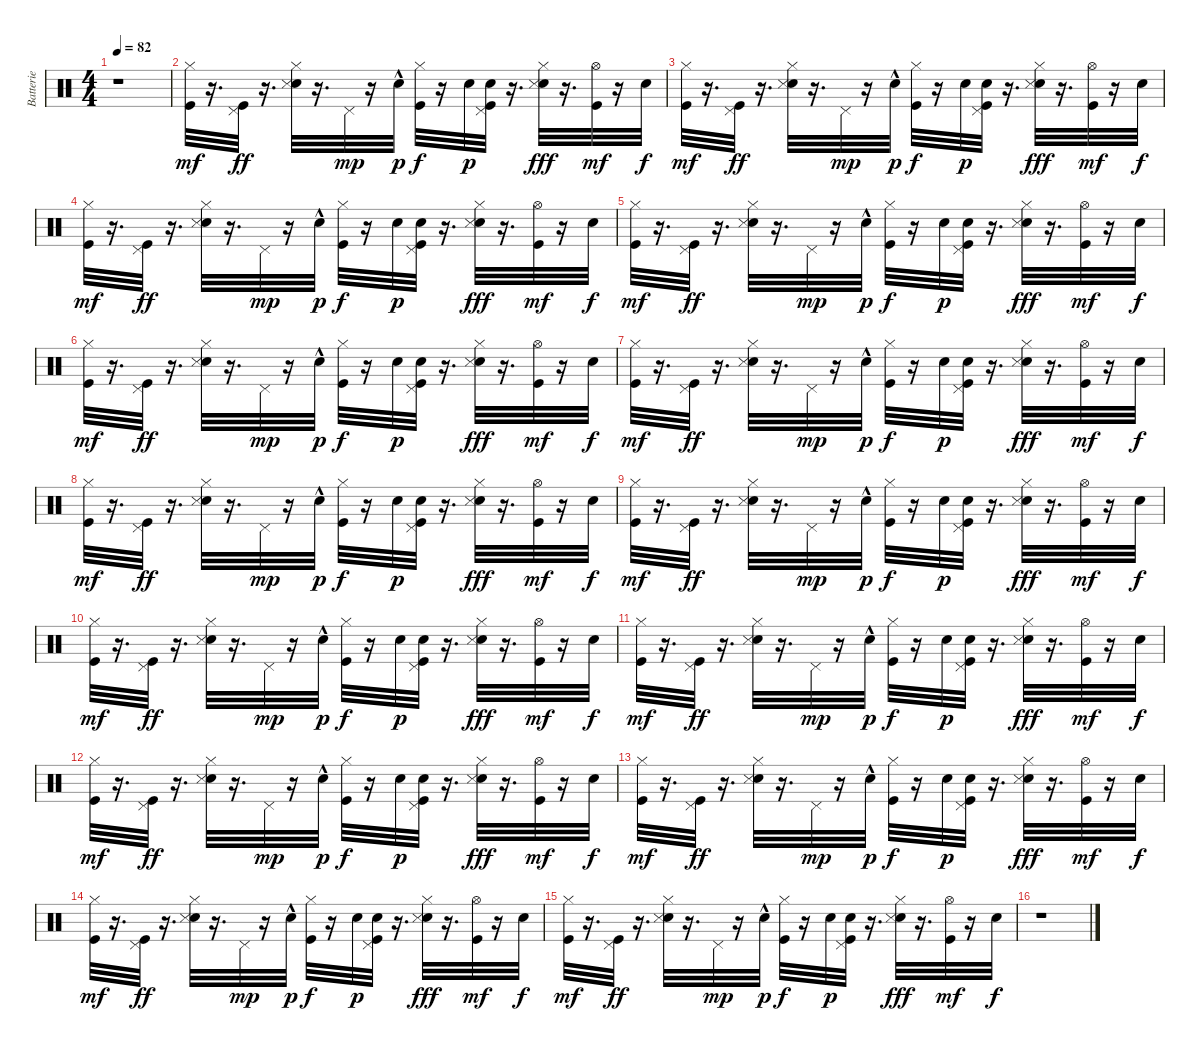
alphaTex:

\track ("Batterie" "Batterie") {instrument percussion}
\staff {score}
\articulation defaults
\ts (4 4)
\tempo 82
\clef neutral
\ks c
r.1{dy f} |
("Hi-Hat (closed)" "Kick (hit)").32{dy mf} r.16{d} ("Pedal Hi-Hat (hit)" "Kick (hit)").32{dy ff} r.16{d} ("Electric Snare (hit)" "Hi-Hat (closed)" "Snare (side stick) 3").32 r.16{d} "Pedal Hi-Hat (hit)".32{dy mp} r.16 "Electric Snare (hit)"{hac}.32{dy p} ("Hi-Hat (closed)" "Kick (hit)").32{dy f} r.16 "Electric Snare (hit)".32{dy p} ("Electric Snare (hit)" "Pedal Hi-Hat (hit)" "Kick (hit)").32 r.16{d} ("Electric Snare (hit)" "Hi-Hat (closed)" "Snare (side stick) 3").32{dy fff} r.16{d} ("Hi-Hat (open)" "Kick (hit)").32{dy mf} r.16 "Electric Snare (hit)".32{dy f} |
("Hi-Hat (closed)" "Kick (hit)").32{dy mf} r.16{d} ("Pedal Hi-Hat (hit)" "Kick (hit)").32{dy ff} r.16{d} ("Electric Snare (hit)" "Hi-Hat (closed)" "Snare (side stick) 3").32 r.16{d} "Pedal Hi-Hat (hit)".32{dy mp} r.16 "Electric Snare (hit)"{hac}.32{dy p} ("Hi-Hat (closed)" "Kick (hit)").32{dy f} r.16 "Electric Snare (hit)".32{dy p} ("Electric Snare (hit)" "Pedal Hi-Hat (hit)" "Kick (hit)").32 r.16{d} ("Electric Snare (hit)" "Hi-Hat (closed)" "Snare (side stick) 3").32{dy fff} r.16{d} ("Hi-Hat (open)" "Kick (hit)").32{dy mf} r.16 "Electric Snare (hit)".32{dy f} |
("Hi-Hat (closed)" "Kick (hit)").32{dy mf} r.16{d} ("Pedal Hi-Hat (hit)" "Kick (hit)").32{dy ff} r.16{d} ("Electric Snare (hit)" "Hi-Hat (closed)" "Snare (side stick) 3").32 r.16{d} "Pedal Hi-Hat (hit)".32{dy mp} r.16 "Electric Snare (hit)"{hac}.32{dy p} ("Hi-Hat (closed)" "Kick (hit)").32{dy f} r.16 "Electric Snare (hit)".32{dy p} ("Electric Snare (hit)" "Pedal Hi-Hat (hit)" "Kick (hit)").32 r.16{d} ("Electric Snare (hit)" "Hi-Hat (closed)" "Snare (side stick) 3").32{dy fff} r.16{d} ("Hi-Hat (open)" "Kick (hit)").32{dy mf} r.16 "Electric Snare (hit)".32{dy f} |
("Hi-Hat (closed)" "Kick (hit)").32{dy mf} r.16{d} ("Pedal Hi-Hat (hit)" "Kick (hit)").32{dy ff} r.16{d} ("Electric Snare (hit)" "Hi-Hat (closed)" "Snare (side stick) 3").32 r.16{d} "Pedal Hi-Hat (hit)".32{dy mp} r.16 "Electric Snare (hit)"{hac}.32{dy p} ("Hi-Hat (closed)" "Kick (hit)").32{dy f} r.16 "Electric Snare (hit)".32{dy p} ("Electric Snare (hit)" "Pedal Hi-Hat (hit)" "Kick (hit)").32 r.16{d} ("Electric Snare (hit)" "Hi-Hat (closed)" "Snare (side stick) 3").32{dy fff} r.16{d} ("Hi-Hat (open)" "Kick (hit)").32{dy mf} r.16 "Electric Snare (hit)".32{dy f} |
("Hi-Hat (closed)" "Kick (hit)").32{dy mf} r.16{d} ("Pedal Hi-Hat (hit)" "Kick (hit)").32{dy ff} r.16{d} ("Electric Snare (hit)" "Hi-Hat (closed)" "Snare (side stick) 3").32 r.16{d} "Pedal Hi-Hat (hit)".32{dy mp} r.16 "Electric Snare (hit)"{hac}.32{dy p} ("Hi-Hat (closed)" "Kick (hit)").32{dy f} r.16 "Electric Snare (hit)".32{dy p} ("Electric Snare (hit)" "Pedal Hi-Hat (hit)" "Kick (hit)").32 r.16{d} ("Electric Snare (hit)" "Hi-Hat (closed)" "Snare (side stick) 3").32{dy fff} r.16{d} ("Hi-Hat (open)" "Kick (hit)").32{dy mf} r.16 "Electric Snare (hit)".32{dy f} |
("Hi-Hat (closed)" "Kick (hit)").32{dy mf} r.16{d} ("Pedal Hi-Hat (hit)" "Kick (hit)").32{dy ff} r.16{d} ("Electric Snare (hit)" "Hi-Hat (closed)" "Snare (side stick) 3").32 r.16{d} "Pedal Hi-Hat (hit)".32{dy mp} r.16 "Electric Snare (hit)"{hac}.32{dy p} ("Hi-Hat (closed)" "Kick (hit)").32{dy f} r.16 "Electric Snare (hit)".32{dy p} ("Electric Snare (hit)" "Pedal Hi-Hat (hit)" "Kick (hit)").32 r.16{d} ("Electric Snare (hit)" "Hi-Hat (closed)" "Snare (side stick) 3").32{dy fff} r.16{d} ("Hi-Hat (open)" "Kick (hit)").32{dy mf} r.16 "Electric Snare (hit)".32{dy f} |
("Hi-Hat (closed)" "Kick (hit)").32{dy mf} r.16{d} ("Pedal Hi-Hat (hit)" "Kick (hit)").32{dy ff} r.16{d} ("Electric Snare (hit)" "Hi-Hat (closed)" "Snare (side stick) 3").32 r.16{d} "Pedal Hi-Hat (hit)".32{dy mp} r.16 "Electric Snare (hit)"{hac}.32{dy p} ("Hi-Hat (closed)" "Kick (hit)").32{dy f} r.16 "Electric Snare (hit)".32{dy p} ("Electric Snare (hit)" "Pedal Hi-Hat (hit)" "Kick (hit)").32 r.16{d} ("Electric Snare (hit)" "Hi-Hat (closed)" "Snare (side stick) 3").32{dy fff} r.16{d} ("Hi-Hat (open)" "Kick (hit)").32{dy mf} r.16 "Electric Snare (hit)".32{dy f} |
("Hi-Hat (closed)" "Kick (hit)").32{dy mf} r.16{d} ("Pedal Hi-Hat (hit)" "Kick (hit)").32{dy ff} r.16{d} ("Electric Snare (hit)" "Hi-Hat (closed)" "Snare (side stick) 3").32 r.16{d} "Pedal Hi-Hat (hit)".32{dy mp} r.16 "Electric Snare (hit)"{hac}.32{dy p} ("Hi-Hat (closed)" "Kick (hit)").32{dy f} r.16 "Electric Snare (hit)".32{dy p} ("Electric Snare (hit)" "Pedal Hi-Hat (hit)" "Kick (hit)").32 r.16{d} ("Electric Snare (hit)" "Hi-Hat (closed)" "Snare (side stick) 3").32{dy fff} r.16{d} ("Hi-Hat (open)" "Kick (hit)").32{dy mf} r.16 "Electric Snare (hit)".32{dy f} |
("Hi-Hat (closed)" "Kick (hit)").32{dy mf} r.16{d} ("Pedal Hi-Hat (hit)" "Kick (hit)").32{dy ff} r.16{d} ("Electric Snare (hit)" "Hi-Hat (closed)" "Snare (side stick) 3").32 r.16{d} "Pedal Hi-Hat (hit)".32{dy mp} r.16 "Electric Snare (hit)"{hac}.32{dy p} ("Hi-Hat (closed)" "Kick (hit)").32{dy f} r.16 "Electric Snare (hit)".32{dy p} ("Electric Snare (hit)" "Pedal Hi-Hat (hit)" "Kick (hit)").32 r.16{d} ("Electric Snare (hit)" "Hi-Hat (closed)" "Snare (side stick) 3").32{dy fff} r.16{d} ("Hi-Hat (open)" "Kick (hit)").32{dy mf} r.16 "Electric Snare (hit)".32{dy f} |
("Hi-Hat (closed)" "Kick (hit)").32{dy mf} r.16{d} ("Pedal Hi-Hat (hit)" "Kick (hit)").32{dy ff} r.16{d} ("Electric Snare (hit)" "Hi-Hat (closed)" "Snare (side stick) 3").32 r.16{d} "Pedal Hi-Hat (hit)".32{dy mp} r.16 "Electric Snare (hit)"{hac}.32{dy p} ("Hi-Hat (closed)" "Kick (hit)").32{dy f} r.16 "Electric Snare (hit)".32{dy p} ("Electric Snare (hit)" "Pedal Hi-Hat (hit)" "Kick (hit)").32 r.16{d} ("Electric Snare (hit)" "Hi-Hat (closed)" "Snare (side stick) 3").32{dy fff} r.16{d} ("Hi-Hat (open)" "Kick (hit)").32{dy mf} r.16 "Electric Snare (hit)".32{dy f} |
("Hi-Hat (closed)" "Kick (hit)").32{dy mf} r.16{d} ("Pedal Hi-Hat (hit)" "Kick (hit)").32{dy ff} r.16{d} ("Electric Snare (hit)" "Hi-Hat (closed)" "Snare (side stick) 3").32 r.16{d} "Pedal Hi-Hat (hit)".32{dy mp} r.16 "Electric Snare (hit)"{hac}.32{dy p} ("Hi-Hat (closed)" "Kick (hit)").32{dy f} r.16 "Electric Snare (hit)".32{dy p} ("Electric Snare (hit)" "Pedal Hi-Hat (hit)" "Kick (hit)").32 r.16{d} ("Electric Snare (hit)" "Hi-Hat (closed)" "Snare (side stick) 3").32{dy fff} r.16{d} ("Hi-Hat (open)" "Kick (hit)").32{dy mf} r.16 "Electric Snare (hit)".32{dy f} |
("Hi-Hat (closed)" "Kick (hit)").32{dy mf} r.16{d} ("Pedal Hi-Hat (hit)" "Kick (hit)").32{dy ff} r.16{d} ("Electric Snare (hit)" "Hi-Hat (closed)" "Snare (side stick) 3").32 r.16{d} "Pedal Hi-Hat (hit)".32{dy mp} r.16 "Electric Snare (hit)"{hac}.32{dy p} ("Hi-Hat (closed)" "Kick (hit)").32{dy f} r.16 "Electric Snare (hit)".32{dy p} ("Electric Snare (hit)" "Pedal Hi-Hat (hit)" "Kick (hit)").32 r.16{d} ("Electric Snare (hit)" "Hi-Hat (closed)" "Snare (side stick) 3").32{dy fff} r.16{d} ("Hi-Hat (open)" "Kick (hit)").32{dy mf} r.16 "Electric Snare (hit)".32{dy f} |
("Hi-Hat (closed)" "Kick (hit)").32{dy mf} r.16{d} ("Pedal Hi-Hat (hit)" "Kick (hit)").32{dy ff} r.16{d} ("Electric Snare (hit)" "Hi-Hat (closed)" "Snare (side stick) 3").32 r.16{d} "Pedal Hi-Hat (hit)".32{dy mp} r.16 "Electric Snare (hit)"{hac}.32{dy p} ("Hi-Hat (closed)" "Kick (hit)").32{dy f} r.16 "Electric Snare (hit)".32{dy p} ("Electric Snare (hit)" "Pedal Hi-Hat (hit)" "Kick (hit)").32 r.16{d} ("Electric Snare (hit)" "Hi-Hat (closed)" "Snare (side stick) 3").32{dy fff} r.16{d} ("Hi-Hat (open)" "Kick (hit)").32{dy mf} r.16 "Electric Snare (hit)".32{dy f} |
("Hi-Hat (closed)" "Kick (hit)").32{dy mf} r.16{d} ("Pedal Hi-Hat (hit)" "Kick (hit)").32{dy ff} r.16{d} ("Electric Snare (hit)" "Hi-Hat (closed)" "Snare (side stick) 3").32 r.16{d} "Pedal Hi-Hat (hit)".32{dy mp} r.16 "Electric Snare (hit)"{hac}.32{dy p} ("Hi-Hat (closed)" "Kick (hit)").32{dy f} r.16 "Electric Snare (hit)".32{dy p} ("Electric Snare (hit)" "Pedal Hi-Hat (hit)" "Kick (hit)").32 r.16{d} ("Electric Snare (hit)" "Hi-Hat (closed)" "Snare (side stick) 3").32{dy fff} r.16{d} ("Hi-Hat (open)" "Kick (hit)").32{dy mf} r.16 "Electric Snare (hit)".32{dy f} |
r.1
